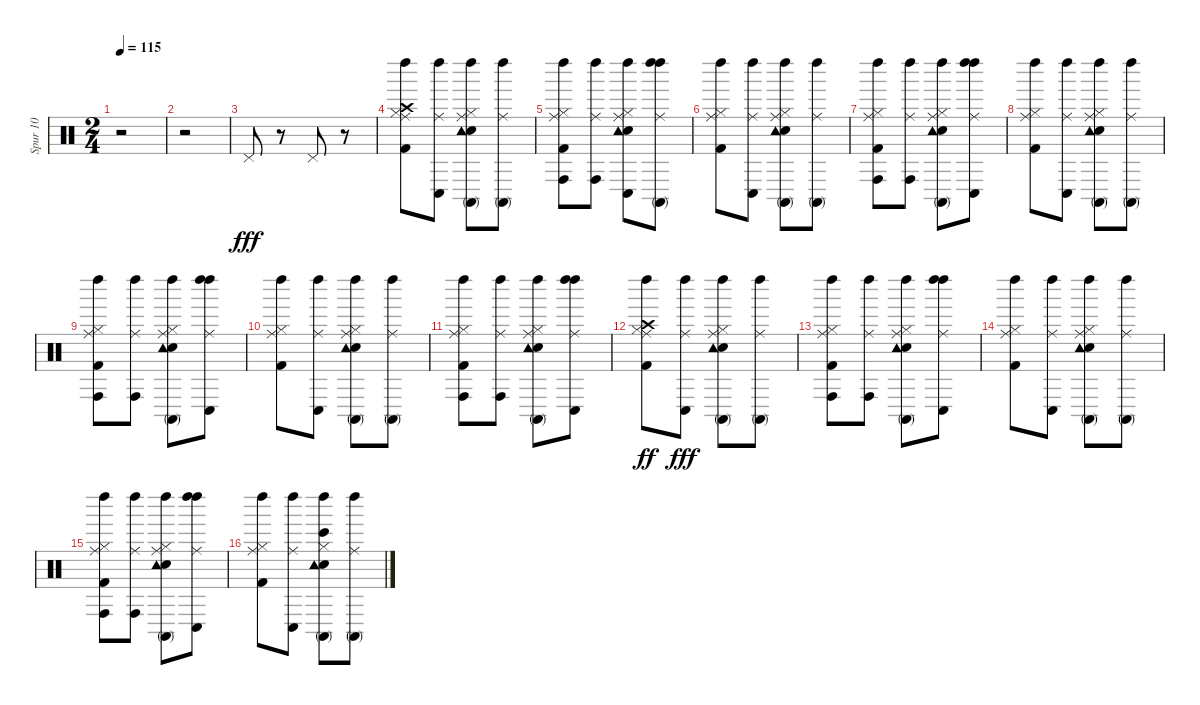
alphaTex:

\track ("Spur 10" "Spur 10") {instrument percussion}
\staff {score}
\articulation defaults
\ts (2 4)
\tempo 115
\clef neutral
\ks c
r.2{dy fff} |
r.2 |
"Pedal Hi-Hat (hit)".8 r.8 "Pedal Hi-Hat (hit)".8 r.8 |
("Crash high (hit)" "Left Maraca (hit)" "Hi-Hat (closed)" "Kick (hit) 2" "Ride (middle)").8 ("Left Maraca (hit)" "Conga low (hit)" "Ride (middle)").8 ("Left Maraca (hit)" "Hi-Hat (closed)" "Electric Snare (hit)" "Tambourine (hit)" "Conga high (mute)" "Ride (middle)").8 ("Left Maraca (hit)" "Conga high (mute)" "Ride (middle)").8 |
("Left Maraca (hit)" "Hi-Hat (closed)" "Kick (hit) 2" "Conga high (hit)" "Ride (middle)").8 ("Left Maraca (hit)" "Conga high (hit)" "Ride (middle)").8 ("Left Maraca (hit)" "Hi-Hat (closed)" "Electric Snare (hit)" "Tambourine (hit)" "Conga low (hit)" "Ride (middle)").8 ("Left Maraca (hit)" "Ride (middle)" "Left Maraca (hit)" "Conga high (mute)").8 |
("Left Maraca (hit)" "Hi-Hat (closed)" "Kick (hit) 2" "Ride (middle)").8 ("Left Maraca (hit)" "Conga low (hit)" "Ride (middle)").8 ("Left Maraca (hit)" "Hi-Hat (closed)" "Electric Snare (hit)" "Tambourine (hit)" "Conga high (mute)" "Ride (middle)").8 ("Ride (middle)" "Left Maraca (hit)" "Conga high (mute)").8 |
("Left Maraca (hit)" "Hi-Hat (closed)" "Kick (hit) 2" "Conga high (hit)" "Ride (middle)").8 ("Left Maraca (hit)" "Conga high (hit)" "Ride (middle)").8 ("Left Maraca (hit)" "Hi-Hat (closed)" "Electric Snare (hit)" "Tambourine (hit)" "Conga high (mute)" "Ride (middle)").8 ("Left Maraca (hit)" "Ride (middle)" "Left Maraca (hit)" "Conga low (hit)").8 |
("Left Maraca (hit)" "Hi-Hat (closed)" "Kick (hit) 2" "Ride (middle)").8 ("Left Maraca (hit)" "Conga low (hit)" "Ride (middle)").8 ("Ride (middle)" "Left Maraca (hit)" "Hi-Hat (closed)" "Electric Snare (hit)" "Tambourine (hit)" "Conga high (mute)").8 ("Left Maraca (hit)" "Conga high (mute)" "Ride (middle)").8 |
("Left Maraca (hit)" "Hi-Hat (closed)" "Kick (hit) 2" "Conga high (hit)" "Ride (middle)").8 ("Left Maraca (hit)" "Conga high (hit)" "Ride (middle)").8 ("Left Maraca (hit)" "Hi-Hat (closed)" "Electric Snare (hit)" "Tambourine (hit)" "Conga high (mute)" "Ride (middle)").8 ("Left Maraca (hit)" "Left Maraca (hit)" "Conga low (hit)" "Ride (middle)").8 |
("Left Maraca (hit)" "Hi-Hat (closed)" "Kick (hit) 2" "Ride (middle)").8 ("Left Maraca (hit)" "Conga low (hit)" "Ride (middle)").8 ("Left Maraca (hit)" "Hi-Hat (closed)" "Electric Snare (hit)" "Tambourine (hit)" "Conga high (mute)" "Ride (middle)").8 ("Left Maraca (hit)" "Conga high (mute)" "Ride (middle)").8 |
("Left Maraca (hit)" "Hi-Hat (closed)" "Kick (hit) 2" "Conga high (hit)" "Ride (middle)").8 ("Left Maraca (hit)" "Conga high (hit)" "Ride (middle)").8 ("Left Maraca (hit)" "Hi-Hat (closed)" "Electric Snare (hit)" "Tambourine (hit)" "Conga high (mute)" "Ride (middle)").8 ("Left Maraca (hit)" "Ride (middle)" "Left Maraca (hit)" "Conga low (hit)").8 |
("Ride (middle)" "Left Maraca (hit)" "Hi-Hat (closed)" "Kick (hit) 2" "Crash high (hit)").8{dy ff} ("Left Maraca (hit)" "Conga low (hit)" "Ride (middle)").8{dy fff} ("Left Maraca (hit)" "Hi-Hat (closed)" "Electric Snare (hit)" "Tambourine (hit)" "Conga high (mute)" "Ride (middle)").8 ("Left Maraca (hit)" "Conga high (mute)" "Ride (middle)").8 |
("Left Maraca (hit)" "Hi-Hat (closed)" "Kick (hit) 2" "Conga high (hit)" "Ride (middle)").8 ("Ride (middle)" "Left Maraca (hit)" "Conga high (hit)").8 ("Left Maraca (hit)" "Hi-Hat (closed)" "Electric Snare (hit)" "Tambourine (hit)" "Conga high (mute)" "Ride (middle)").8 ("Left Maraca (hit)" "Left Maraca (hit)" "Conga low (hit)" "Ride (middle)").8 |
("Left Maraca (hit)" "Hi-Hat (closed)" "Kick (hit) 2" "Ride (middle)").8 ("Left Maraca (hit)" "Conga low (hit)" "Ride (middle)").8 ("Left Maraca (hit)" "Hi-Hat (closed)" "Electric Snare (hit)" "Tambourine (hit)" "Conga high (mute)" "Ride (middle)").8 ("Left Maraca (hit)" "Conga high (mute)" "Ride (middle)").8 |
("Left Maraca (hit)" "Hi-Hat (closed)" "Kick (hit) 2" "Conga high (hit)" "Ride (middle)").8 ("Left Maraca (hit)" "Conga high (hit)" "Ride (middle)").8 ("Left Maraca (hit)" "Hi-Hat (closed)" "Electric Snare (hit)" "Tambourine (hit)" "Conga high (mute)" "Ride (middle)").8 ("Left Maraca (hit)" "Left Maraca (hit)" "Conga low (hit)" "Ride (middle)").8 |
("Left Maraca (hit)" "Hi-Hat (closed)" "Kick (hit) 2" "Ride (middle)").8 ("Conga low (hit)" "Left Maraca (hit)" "Ride (middle)").8 ("Left Maraca (hit)" "Hi-Hat (closed)" "Electric Snare (hit)" "Tambourine (hit)" "Conga high (mute)" "Bongo High (hit)").8 ("Left Maraca (hit)" "Conga high (mute)" "Ride (middle)").8
